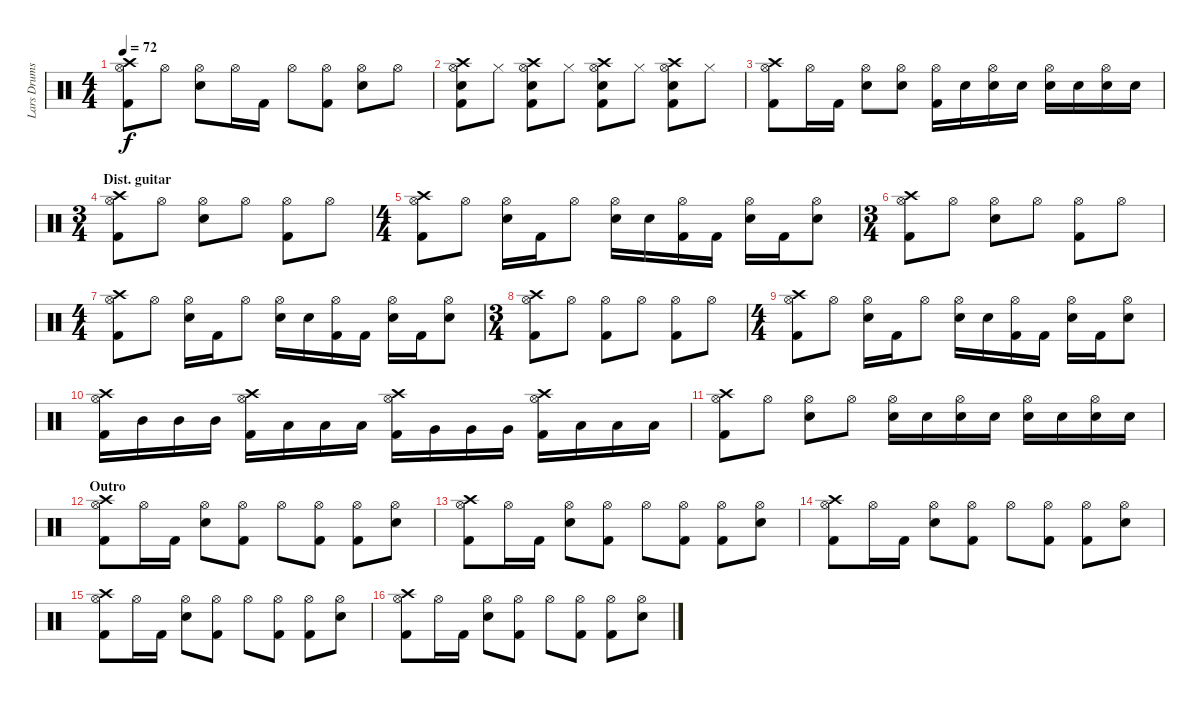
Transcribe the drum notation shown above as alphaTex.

\track ("Lars Drums" "Lars Drums") {instrument percussion}
\staff {score}
\articulation defaults
\ts (4 4)
\tempo 72
\clef neutral
\ks c
("Kick (hit) 2" "Hi-Hat (open)" "Crash high (hit)").8{dy f} "Hi-Hat (open)".8 ("Snare (hit) 2" "Hi-Hat (open)").8 "Hi-Hat (open)".16 "Kick (hit) 2".16 "Hi-Hat (open)".8 ("Kick (hit) 2" "Hi-Hat (open)").8 ("Snare (hit) 2" "Hi-Hat (open)").8 "Hi-Hat (open)".8 |
("Kick (hit) 2" "Snare (hit) 2" "Hi-Hat (open)" "Crash high (hit)").8 "Hi-Hat (closed)".8 ("Kick (hit) 2" "Snare (hit) 2" "Hi-Hat (open)" "Crash high (hit)").8 "Hi-Hat (closed)".8 ("Kick (hit) 2" "Snare (hit) 2" "Hi-Hat (open)" "Crash high (hit)").8 "Hi-Hat (closed)".8 ("Kick (hit) 2" "Snare (hit) 2" "Hi-Hat (open)" "Crash high (hit)").8 "Hi-Hat (closed)".8 |
("Kick (hit) 2" "Hi-Hat (open)" "Crash high (hit)").8 "Hi-Hat (open)".16 "Kick (hit) 2".16 ("Snare (hit) 2" "Hi-Hat (open)").8 ("Snare (hit) 2" "Hi-Hat (open)").8 ("Kick (hit) 2" "Hi-Hat (open)").16 "Snare (hit) 2".16 ("Snare (hit) 2" "Hi-Hat (open)").16 "Snare (hit) 2".16 ("Snare (hit) 2" "Hi-Hat (open)").16 "Snare (hit) 2".16 ("Snare (hit) 2" "Hi-Hat (open)").16 "Snare (hit) 2".16 |
\ts (3 4)
\section ("" "Dist. guitar")
("Kick (hit) 2" "Hi-Hat (open)" "Crash high (hit)").8 "Hi-Hat (open)".8 ("Snare (hit) 2" "Hi-Hat (open)").8 "Hi-Hat (open)".8 ("Kick (hit) 2" "Hi-Hat (open)").8 "Hi-Hat (open)".8 |
\ts (4 4)
("Kick (hit) 2" "Hi-Hat (open)" "Crash high (hit)").8 "Hi-Hat (open)".8 ("Snare (hit) 2" "Hi-Hat (open)").16 "Kick (hit) 2".16 "Hi-Hat (open)".8 ("Snare (hit) 2" "Hi-Hat (open)").16 "Snare (hit) 2".16 ("Kick (hit) 2" "Hi-Hat (open)").16 "Kick (hit) 2".16 ("Snare (hit) 2" "Hi-Hat (open)").16 "Kick (hit) 2".16 ("Snare (hit) 2" "Hi-Hat (open)").8 |
\ts (3 4)
("Kick (hit) 2" "Hi-Hat (open)" "Crash high (hit)").8 "Hi-Hat (open)".8 ("Snare (hit) 2" "Hi-Hat (open)").8 "Hi-Hat (open)".8 ("Kick (hit) 2" "Hi-Hat (open)").8 "Hi-Hat (open)".8 |
\ts (4 4)
("Kick (hit) 2" "Hi-Hat (open)" "Crash high (hit)").8 "Hi-Hat (open)".8 ("Snare (hit) 2" "Hi-Hat (open)").16 "Kick (hit) 2".16 "Hi-Hat (open)".8 ("Snare (hit) 2" "Hi-Hat (open)").16 "Snare (hit) 2".16 ("Kick (hit) 2" "Hi-Hat (open)").16 "Kick (hit) 2".16 ("Snare (hit) 2" "Hi-Hat (open)").16 "Kick (hit) 2".16 ("Snare (hit) 2" "Hi-Hat (open)").8 |
\ts (3 4)
("Kick (hit) 2" "Hi-Hat (open)" "Crash high (hit)").8 "Hi-Hat (open)".8 ("Kick (hit) 2" "Hi-Hat (open)").8 "Hi-Hat (open)".8 ("Kick (hit) 2" "Hi-Hat (open)").8 "Hi-Hat (open)".8 |
\ts (4 4)
("Kick (hit) 2" "Hi-Hat (open)" "Crash high (hit)").8 "Hi-Hat (open)".8 ("Snare (hit) 2" "Hi-Hat (open)").16 "Kick (hit) 2".16 "Hi-Hat (open)".8 ("Snare (hit) 2" "Hi-Hat (open)").16 "Snare (hit) 2".16 ("Kick (hit) 2" "Hi-Hat (open)").16 "Kick (hit) 2".16 ("Snare (hit) 2" "Hi-Hat (open)").16 "Kick (hit) 2".16 ("Snare (hit) 2" "Hi-Hat (open)").8 |
("Kick (hit) 2" "Hi-Hat (open)" "Crash high (hit)").16 "Mid Tom (hit)".16 "Mid Tom (hit)".16 "Mid Tom (hit)".16 ("Kick (hit) 2" "Hi-Hat (open)" "Crash high (hit)").16 "Low Tom (hit)".16 "Low Tom (hit)".16 "Low Tom (hit)".16 ("Kick (hit) 2" "Hi-Hat (open)" "Crash high (hit)").16 "Very Low Tom (hit)".16 "Very Low Tom (hit)".16 "Very Low Tom (hit)".16 ("Kick (hit) 2" "Hi-Hat (open)" "Crash high (hit)").16 "Low Floor Tom (hit)".16 "Low Floor Tom (hit)".16 "Low Floor Tom (hit)".16 |
("Kick (hit) 2" "Hi-Hat (open)" "Crash high (hit)").8 "Hi-Hat (open)".8 ("Snare (hit) 2" "Hi-Hat (open)").8 "Hi-Hat (open)".8 ("Snare (hit) 2" "Hi-Hat (open)").16 "Snare (hit) 2".16 ("Snare (hit) 2" "Hi-Hat (open)").16 "Snare (hit) 2".16 ("Snare (hit) 2" "Hi-Hat (open)").16 "Snare (hit) 2".16 ("Snare (hit) 2" "Hi-Hat (open)").16 "Snare (hit) 2".16 |
\section ("" "Outro")
("Kick (hit) 2" "Hi-Hat (open)" "Crash high (hit)").8 "Hi-Hat (open)".16 "Kick (hit) 2".16 ("Snare (hit) 2" "Hi-Hat (open)").8 ("Kick (hit) 2" "Hi-Hat (open)").8 "Hi-Hat (open)".8 ("Kick (hit) 2" "Hi-Hat (open)").8 ("Kick (hit) 2" "Hi-Hat (open)").8 ("Snare (hit) 2" "Hi-Hat (open)").8 |
("Kick (hit) 2" "Hi-Hat (open)" "Crash high (hit)").8 "Hi-Hat (open)".16 "Kick (hit) 2".16 ("Snare (hit) 2" "Hi-Hat (open)").8 ("Kick (hit) 2" "Hi-Hat (open)").8 "Hi-Hat (open)".8 ("Kick (hit) 2" "Hi-Hat (open)").8 ("Kick (hit) 2" "Hi-Hat (open)").8 ("Snare (hit) 2" "Hi-Hat (open)").8 |
("Kick (hit) 2" "Hi-Hat (open)" "Crash high (hit)").8 "Hi-Hat (open)".16 "Kick (hit) 2".16 ("Snare (hit) 2" "Hi-Hat (open)").8 ("Kick (hit) 2" "Hi-Hat (open)").8 "Hi-Hat (open)".8 ("Kick (hit) 2" "Hi-Hat (open)").8 ("Kick (hit) 2" "Hi-Hat (open)").8 ("Snare (hit) 2" "Hi-Hat (open)").8 |
("Kick (hit) 2" "Hi-Hat (open)" "Crash high (hit)").8 "Hi-Hat (open)".16 "Kick (hit) 2".16 ("Snare (hit) 2" "Hi-Hat (open)").8 ("Kick (hit) 2" "Hi-Hat (open)").8 "Hi-Hat (open)".8 ("Kick (hit) 2" "Hi-Hat (open)").8 ("Kick (hit) 2" "Hi-Hat (open)").8 ("Snare (hit) 2" "Hi-Hat (open)").8 |
("Kick (hit) 2" "Hi-Hat (open)" "Crash high (hit)").8 "Hi-Hat (open)".16 "Kick (hit) 2".16 ("Snare (hit) 2" "Hi-Hat (open)").8 ("Kick (hit) 2" "Hi-Hat (open)").8 "Hi-Hat (open)".8 ("Kick (hit) 2" "Hi-Hat (open)").8 ("Kick (hit) 2" "Hi-Hat (open)").8 ("Snare (hit) 2" "Hi-Hat (open)").8
